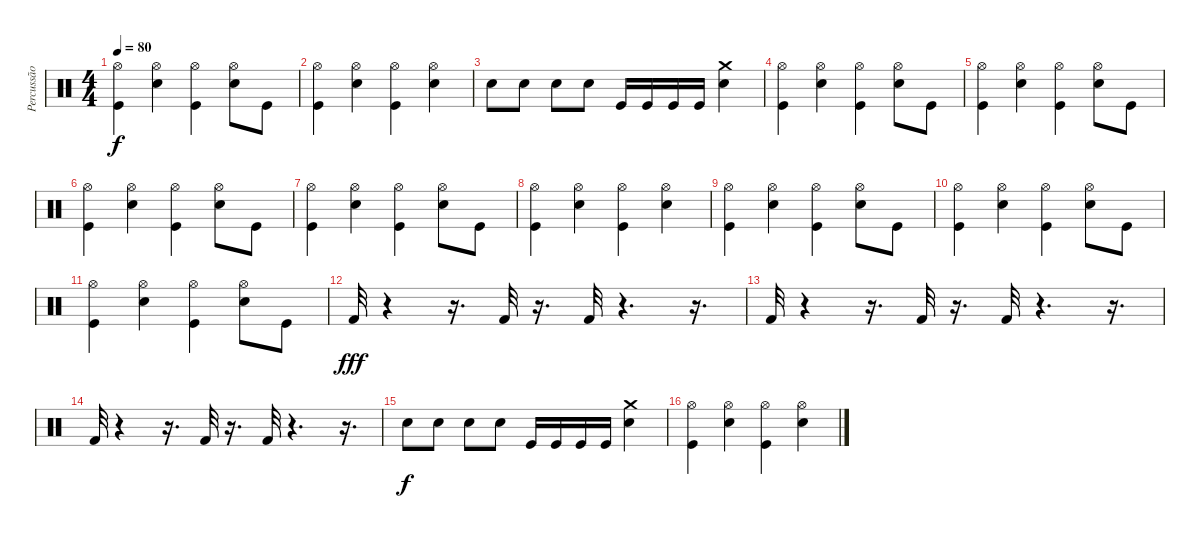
\track ("Percussão" "Percussão") {instrument percussion}
\staff {score}
\articulation defaults
\ts (4 4)
\tempo 80
\clef neutral
\ks c
("Hi-Hat (open)" "Kick (hit)").4{dy f} ("Hi-Hat (open)" "Electric Snare (hit)").4 ("Hi-Hat (open)" "Kick (hit)").4 ("Hi-Hat (open)" "Electric Snare (hit)").8 "Kick (hit)".8 |
("Hi-Hat (open)" "Kick (hit)").4 ("Hi-Hat (open)" "Electric Snare (hit)").4 ("Hi-Hat (open)" "Kick (hit)").4 ("Hi-Hat (open)" "Electric Snare (hit)").4 |
"Electric Snare (hit)".8 "Electric Snare (hit)".8 "Electric Snare (hit)".8 "Electric Snare (hit)".8 "Kick (hit)".16 "Kick (hit)".16 "Kick (hit)".16 "Kick (hit)".16 ("Electric Snare (hit)" "Crash medium (hit)").4 |
("Hi-Hat (open)" "Kick (hit)").4 ("Hi-Hat (open)" "Electric Snare (hit)").4 ("Hi-Hat (open)" "Kick (hit)").4 ("Hi-Hat (open)" "Electric Snare (hit)").8 "Kick (hit)".8 |
("Hi-Hat (open)" "Kick (hit)").4 ("Hi-Hat (open)" "Electric Snare (hit)").4 ("Hi-Hat (open)" "Kick (hit)").4 ("Hi-Hat (open)" "Electric Snare (hit)").8 "Kick (hit)".8 |
("Hi-Hat (open)" "Kick (hit)").4 ("Hi-Hat (open)" "Electric Snare (hit)").4 ("Hi-Hat (open)" "Kick (hit)").4 ("Hi-Hat (open)" "Electric Snare (hit)").8 "Kick (hit)".8 |
("Hi-Hat (open)" "Kick (hit)").4 ("Hi-Hat (open)" "Electric Snare (hit)").4 ("Hi-Hat (open)" "Kick (hit)").4 ("Hi-Hat (open)" "Electric Snare (hit)").8 "Kick (hit)".8 |
("Hi-Hat (open)" "Kick (hit)").4 ("Hi-Hat (open)" "Electric Snare (hit)").4 ("Hi-Hat (open)" "Kick (hit)").4 ("Hi-Hat (open)" "Electric Snare (hit)").4 |
("Hi-Hat (open)" "Kick (hit)").4 ("Hi-Hat (open)" "Electric Snare (hit)").4 ("Hi-Hat (open)" "Kick (hit)").4 ("Hi-Hat (open)" "Electric Snare (hit)").8 "Kick (hit)".8 |
("Hi-Hat (open)" "Kick (hit)").4 ("Hi-Hat (open)" "Electric Snare (hit)").4 ("Hi-Hat (open)" "Kick (hit)").4 ("Hi-Hat (open)" "Electric Snare (hit)").8 "Kick (hit)".8 |
("Hi-Hat (open)" "Kick (hit)").4 ("Hi-Hat (open)" "Electric Snare (hit)").4 ("Hi-Hat (open)" "Kick (hit)").4 ("Hi-Hat (open)" "Electric Snare (hit)").8 "Kick (hit)".8 |
"Kick (hit) 2".32{dy fff} r.4 r.16{d} "Kick (hit) 2".32 r.16{d} "Kick (hit) 2".32 r.4{d} r.16{d} |
"Kick (hit) 2".32 r.4 r.16{d} "Kick (hit) 2".32 r.16{d} "Kick (hit) 2".32 r.4{d} r.16{d} |
"Kick (hit) 2".32 r.4 r.16{d} "Kick (hit) 2".32 r.16{d} "Kick (hit) 2".32 r.4{d} r.16{d} |
"Electric Snare (hit)".8{dy f} "Electric Snare (hit)".8 "Electric Snare (hit)".8 "Electric Snare (hit)".8 "Kick (hit)".16 "Kick (hit)".16 "Kick (hit)".16 "Kick (hit)".16 ("Electric Snare (hit)" "Crash medium (hit)").4 |
("Hi-Hat (open)" "Kick (hit)").4 ("Hi-Hat (open)" "Electric Snare (hit)").4 ("Hi-Hat (open)" "Kick (hit)").4 ("Hi-Hat (open)" "Electric Snare (hit)").4
